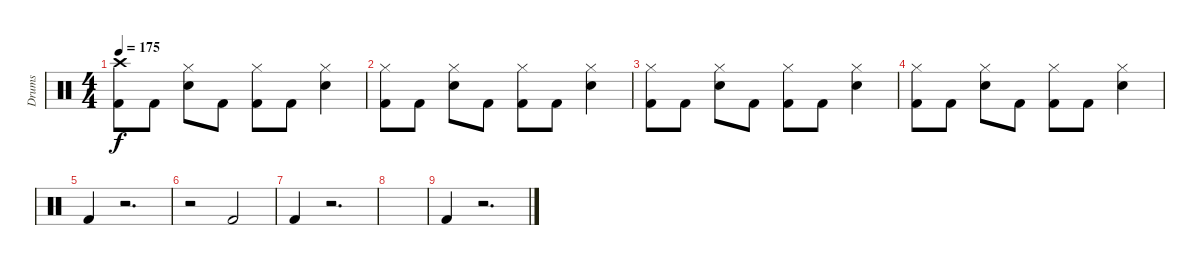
\track ("Drums" "Drums") {instrument percussion}
\staff {score}
\articulation defaults
\ts (4 4)
\tempo 175
\clef neutral
\ks c
("Crash high (hit)" "Kick (hit) 2").8{dy f} "Kick (hit) 2".8 ("Hi-Hat (closed)" "Electric Snare (hit)").8 "Kick (hit) 2".8 ("Hi-Hat (closed)" "Kick (hit) 2").8 "Kick (hit) 2".8 ("Hi-Hat (closed)" "Electric Snare (hit)").4 |
("Hi-Hat (closed)" "Kick (hit) 2").8 "Kick (hit) 2".8 ("Hi-Hat (closed)" "Electric Snare (hit)").8 "Kick (hit) 2".8 ("Hi-Hat (closed)" "Kick (hit) 2").8 "Kick (hit) 2".8 ("Hi-Hat (closed)" "Electric Snare (hit)").4 |
("Hi-Hat (closed)" "Kick (hit) 2").8 "Kick (hit) 2".8 ("Hi-Hat (closed)" "Electric Snare (hit)").8 "Kick (hit) 2".8 ("Hi-Hat (closed)" "Kick (hit) 2").8 "Kick (hit) 2".8 ("Hi-Hat (closed)" "Electric Snare (hit)").4 |
("Hi-Hat (closed)" "Kick (hit) 2").8 "Kick (hit) 2".8 ("Hi-Hat (closed)" "Electric Snare (hit)").8 "Kick (hit) 2".8 ("Hi-Hat (closed)" "Kick (hit) 2").8 "Kick (hit) 2".8 ("Hi-Hat (closed)" "Electric Snare (hit)").4 |
"Kick (hit) 2".4 r.2{d} |
r.2 "Kick (hit) 2".2 |
"Kick (hit) 2".4 r.2{d} |
|
"Kick (hit) 2".4 r.2{d}
